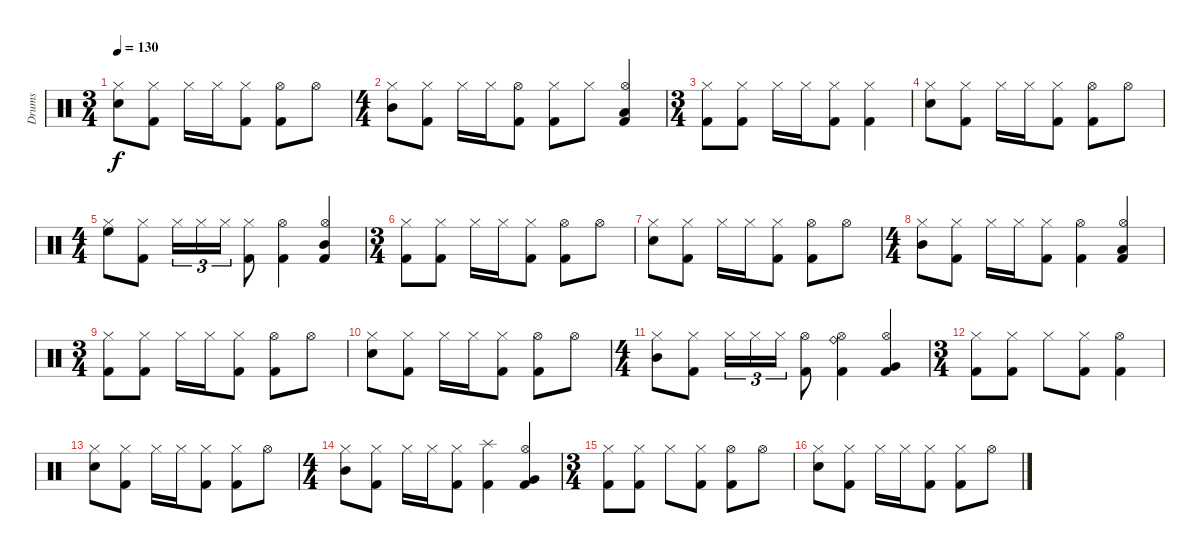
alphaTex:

\track ("Drums" "Drums") {instrument percussion}
\staff {score}
\articulation defaults
\ts (3 4)
\tempo 130
\clef neutral
\ks c
("Hi-Hat (closed)" "Snare (hit) 2").8{dy f} ("Hi-Hat (closed)" "Kick (hit) 2").8 "Hi-Hat (closed)".16 "Hi-Hat (closed)".16 ("Hi-Hat (closed)" "Kick (hit) 2").8 ("Hi-Hat (open)" "Kick (hit) 2").8 "Hi-Hat (open)".8 |
\ts (4 4)
("Hi-Hat (closed)" "Mid Tom (hit)").8 ("Hi-Hat (closed)" "Kick (hit) 2").8 "Hi-Hat (closed)".16 "Hi-Hat (closed)".16 ("Hi-Hat (open)" "Kick (hit) 2").8 ("Hi-Hat (closed)" "Kick (hit) 2").8 "Hi-Hat (closed)".8 ("Hi-Hat (open)" "Low Floor Tom (hit)" "Kick (hit) 2").4 |
\ts (3 4)
("Hi-Hat (closed)" "Kick (hit) 2").8 ("Hi-Hat (closed)" "Kick (hit) 2").8 "Hi-Hat (closed)".16 "Hi-Hat (closed)".16 ("Hi-Hat (closed)" "Kick (hit) 2").8 ("Hi-Hat (closed)" "Kick (hit) 2").4 |
("Hi-Hat (closed)" "Snare (hit) 2").8 ("Hi-Hat (closed)" "Kick (hit) 2").8 "Hi-Hat (closed)".16 "Hi-Hat (closed)".16 ("Hi-Hat (closed)" "Kick (hit) 2").8 ("Hi-Hat (open)" "Kick (hit) 2").8 "Hi-Hat (open)".8 |
\ts (4 4)
("Hi-Hat (closed)" "High Floor Tom (hit)").8 ("Hi-Hat (closed)" "Kick (hit) 2").8 "Hi-Hat (closed)".16{tu (3 2)} "Hi-Hat (closed)".16{tu (3 2)} "Hi-Hat (closed)".16{tu (3 2)} ("Hi-Hat (closed)" "Kick (hit) 2").8 ("Hi-Hat (open)" "Kick (hit) 2").4 ("Hi-Hat (open)" "Mid Tom (hit)" "Kick (hit) 2").4 |
\ts (3 4)
("Hi-Hat (closed)" "Kick (hit) 2").8 ("Hi-Hat (closed)" "Kick (hit) 2").8 "Hi-Hat (closed)".16 "Hi-Hat (closed)".16 ("Hi-Hat (closed)" "Kick (hit) 2").8 ("Hi-Hat (open)" "Kick (hit) 2").8 "Hi-Hat (open)".8 |
("Hi-Hat (closed)" "Snare (hit) 2").8 ("Hi-Hat (closed)" "Kick (hit) 2").8 "Hi-Hat (closed)".16 "Hi-Hat (closed)".16 ("Hi-Hat (closed)" "Kick (hit) 2").8 ("Hi-Hat (open)" "Kick (hit) 2").8 "Hi-Hat (open)".8 |
\ts (4 4)
("Hi-Hat (closed)" "Mid Tom (hit)").8 ("Hi-Hat (closed)" "Kick (hit) 2").8 "Hi-Hat (closed)".16 "Hi-Hat (closed)".16 ("Hi-Hat (closed)" "Kick (hit) 2").8 ("Hi-Hat (open)" "Kick (hit) 2").4 ("Hi-Hat (open)" "Low Floor Tom (hit)" "Kick (hit) 2").4 |
\ts (3 4)
("Hi-Hat (closed)" "Kick (hit) 2").8 ("Hi-Hat (closed)" "Kick (hit) 2").8 "Hi-Hat (closed)".16 "Hi-Hat (closed)".16 ("Hi-Hat (closed)" "Kick (hit) 2").8 ("Hi-Hat (open)" "Kick (hit) 2").8 "Hi-Hat (open)".8 |
("Hi-Hat (closed)" "Snare (hit) 2").8 ("Hi-Hat (closed)" "Kick (hit) 2").8 "Hi-Hat (closed)".16 "Hi-Hat (closed)".16 ("Hi-Hat (closed)" "Kick (hit) 2").8 ("Hi-Hat (open)" "Kick (hit) 2").8 "Hi-Hat (open)".8 |
\ts (4 4)
("Hi-Hat (closed)" "Mid Tom (hit)").8 ("Hi-Hat (closed)" "Kick (hit) 2").8 "Hi-Hat (closed)".16{tu (3 2)} "Hi-Hat (closed)".16{tu (3 2)} "Hi-Hat (closed)".16{tu (3 2)} ("Hi-Hat (open)" "Kick (hit) 2").8 ("Ride (bell)" "Hi-Hat (open)" "Kick (hit) 2").4 ("Hi-Hat (open)" "Very Low Tom (hit)" "Kick (hit) 2").4 |
\ts (3 4)
("Hi-Hat (closed)" "Kick (hit) 2").8 ("Hi-Hat (closed)" "Kick (hit) 2").8 "Hi-Hat (closed)".8 ("Hi-Hat (closed)" "Kick (hit) 2").8 ("Hi-Hat (open)" "Kick (hit) 2").4 |
("Hi-Hat (closed)" "Snare (hit) 2").8 ("Hi-Hat (closed)" "Kick (hit) 2").8 "Hi-Hat (closed)".16 "Hi-Hat (closed)".16 ("Hi-Hat (closed)" "Kick (hit) 2").8 ("Hi-Hat (closed)" "Kick (hit) 2").8 "Hi-Hat (open)".8 |
\ts (4 4)
("Hi-Hat (closed)" "Mid Tom (hit)").8 ("Hi-Hat (closed)" "Kick (hit) 2").8 "Hi-Hat (closed)".16 "Hi-Hat (closed)".16 ("Hi-Hat (closed)" "Kick (hit) 2").8 ("Splash (hit)" "Kick (hit) 2").4 ("Hi-Hat (open)" "Very Low Tom (hit)" "Kick (hit) 2").4 |
\ts (3 4)
("Hi-Hat (closed)" "Kick (hit) 2").8 ("Hi-Hat (closed)" "Kick (hit) 2").8 "Hi-Hat (closed)".8 ("Hi-Hat (closed)" "Kick (hit) 2").8 ("Hi-Hat (open)" "Kick (hit) 2").8 "Hi-Hat (open)".8 |
("Hi-Hat (closed)" "Snare (hit) 2").8 ("Hi-Hat (closed)" "Kick (hit) 2").8 "Hi-Hat (closed)".16 "Hi-Hat (closed)".16 ("Hi-Hat (closed)" "Kick (hit) 2").8 ("Hi-Hat (closed)" "Kick (hit) 2").8 "Hi-Hat (open)".8
